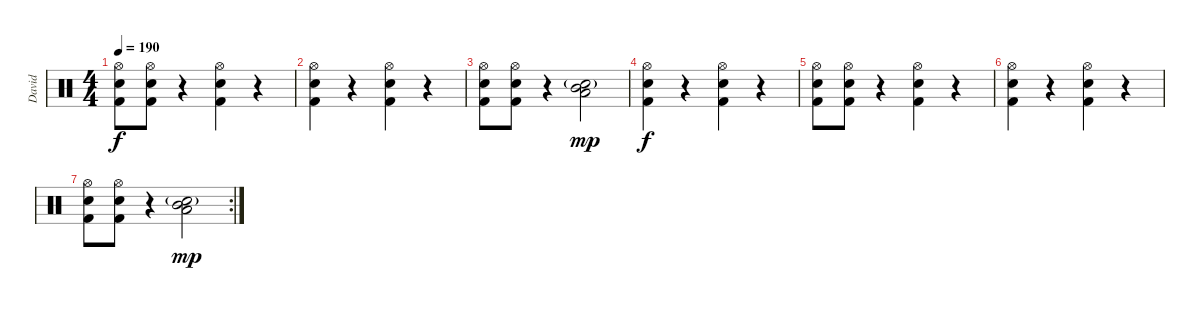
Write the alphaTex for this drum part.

\track ("David" "David") {instrument percussion}
\staff {score}
\articulation defaults
\ts (4 4)
\tempo 190
\clef neutral
\ks c
("Hi-Hat (open)" "Electric Snare (hit)" "Kick (hit) 2").8{dy f} ("Hi-Hat (open)" "Electric Snare (hit)" "Kick (hit) 2").8 r.4 ("Hi-Hat (open)" "Electric Snare (hit)" "Kick (hit) 2").4 r.4 |
("Hi-Hat (open)" "Electric Snare (hit)" "Kick (hit) 2").4 r.4 ("Hi-Hat (open)" "Electric Snare (hit)" "Kick (hit) 2").4 r.4 |
("Hi-Hat (open)" "Electric Snare (hit)" "Kick (hit) 2").8 ("Hi-Hat (open)" "Electric Snare (hit)" "Kick (hit) 2").8 r.4 ("Mid Tom (hit)" "Electric Snare (hit)"{g} "Low Floor Tom (hit)").2{dy mp} |
("Hi-Hat (open)" "Electric Snare (hit)" "Kick (hit) 2").4{dy f} r.4 ("Hi-Hat (open)" "Electric Snare (hit)" "Kick (hit) 2").4 r.4 |
("Hi-Hat (open)" "Electric Snare (hit)" "Kick (hit) 2").8 ("Hi-Hat (open)" "Electric Snare (hit)" "Kick (hit) 2").8 r.4 ("Hi-Hat (open)" "Electric Snare (hit)" "Kick (hit) 2").4 r.4 |
("Hi-Hat (open)" "Electric Snare (hit)" "Kick (hit) 2").4 r.4 ("Hi-Hat (open)" "Electric Snare (hit)" "Kick (hit) 2").4 r.4 |
\rc 2
("Hi-Hat (open)" "Electric Snare (hit)" "Kick (hit) 2").8 ("Hi-Hat (open)" "Electric Snare (hit)" "Kick (hit) 2").8 r.4 ("Mid Tom (hit)" "Electric Snare (hit)"{g} "Low Floor Tom (hit)").2{dy mp}
